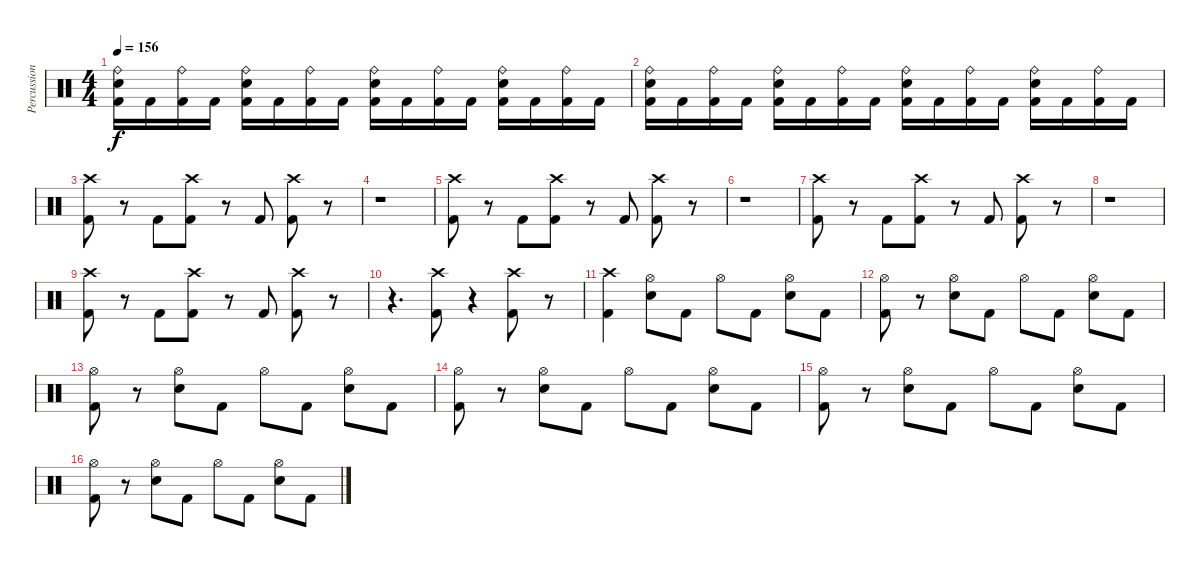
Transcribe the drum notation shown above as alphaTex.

\track ("Percussion" "Percussion") {instrument percussion}
\staff {score}
\articulation defaults
\ts (4 4)
\tempo 156
\clef neutral
\ks c
("Ride (bell)" "Snare (hit) 2" "Kick (hit) 2").16{dy f} "Kick (hit) 2".16 ("Ride (bell)" "Kick (hit) 2").16 "Kick (hit) 2".16 ("Ride (bell)" "Snare (hit) 2" "Kick (hit) 2").16 "Kick (hit) 2".16 ("Ride (bell)" "Kick (hit) 2").16 "Kick (hit) 2".16 ("Ride (bell)" "Snare (hit) 2" "Kick (hit) 2").16 "Kick (hit) 2".16 ("Ride (bell)" "Kick (hit) 2").16 "Kick (hit) 2".16 ("Ride (bell)" "Snare (hit) 2" "Kick (hit) 2").16 "Kick (hit) 2".16 ("Ride (bell)" "Kick (hit) 2").16 "Kick (hit) 2".16 |
("Ride (bell)" "Snare (hit) 2" "Kick (hit) 2").16 "Kick (hit) 2".16 ("Ride (bell)" "Kick (hit) 2").16 "Kick (hit) 2".16 ("Ride (bell)" "Snare (hit) 2" "Kick (hit) 2").16 "Kick (hit) 2".16 ("Ride (bell)" "Kick (hit) 2").16 "Kick (hit) 2".16 ("Ride (bell)" "Snare (hit) 2" "Kick (hit) 2").16 "Kick (hit) 2".16 ("Ride (bell)" "Kick (hit) 2").16 "Kick (hit) 2".16 ("Ride (bell)" "Snare (hit) 2" "Kick (hit) 2").16 "Kick (hit) 2".16 ("Ride (bell)" "Kick (hit) 2").16 "Kick (hit) 2".16 |
("Crash high (hit)" "Kick (hit) 2").8 r.8 "Kick (hit) 2".8 ("Crash high (hit)" "Kick (hit) 2").8 r.8 "Kick (hit) 2".8 ("Crash high (hit)" "Kick (hit) 2").8 r.8 |
r.1 |
("Crash high (hit)" "Kick (hit) 2").8 r.8 "Kick (hit) 2".8 ("Crash high (hit)" "Kick (hit) 2").8 r.8 "Kick (hit) 2".8 ("Crash high (hit)" "Kick (hit) 2").8 r.8 |
r.1 |
("Crash high (hit)" "Kick (hit) 2").8 r.8 "Kick (hit) 2".8 ("Crash high (hit)" "Kick (hit) 2").8 r.8 "Kick (hit) 2".8 ("Crash high (hit)" "Kick (hit) 2").8 r.8 |
r.1 |
("Crash high (hit)" "Kick (hit) 2").8 r.8 "Kick (hit) 2".8 ("Crash high (hit)" "Kick (hit) 2").8 r.8 "Kick (hit) 2".8 ("Crash high (hit)" "Kick (hit) 2").8 r.8 |
r.4{d} ("Kick (hit) 2" "Crash high (hit)").8 r.4 ("Kick (hit) 2" "Crash high (hit)").8 r.8 |
("Crash high (hit)" "Kick (hit) 2").4 ("Hi-Hat (open)" "Snare (hit) 2").8 "Kick (hit) 2".8 "Hi-Hat (open)".8 "Kick (hit) 2".8 ("Hi-Hat (open)" "Snare (hit) 2").8 "Kick (hit) 2".8 |
("Hi-Hat (open)" "Kick (hit) 2").8 r.8 ("Hi-Hat (open)" "Snare (hit) 2").8 "Kick (hit) 2".8 "Hi-Hat (open)".8 "Kick (hit) 2".8 ("Hi-Hat (open)" "Snare (hit) 2").8 "Kick (hit) 2".8 |
("Hi-Hat (open)" "Kick (hit) 2").8 r.8 ("Hi-Hat (open)" "Snare (hit) 2").8 "Kick (hit) 2".8 "Hi-Hat (open)".8 "Kick (hit) 2".8 ("Hi-Hat (open)" "Snare (hit) 2").8 "Kick (hit) 2".8 |
("Hi-Hat (open)" "Kick (hit) 2").8 r.8 ("Hi-Hat (open)" "Snare (hit) 2").8 "Kick (hit) 2".8 "Hi-Hat (open)".8 "Kick (hit) 2".8 ("Hi-Hat (open)" "Snare (hit) 2").8 "Kick (hit) 2".8 |
("Hi-Hat (open)" "Kick (hit) 2").8 r.8 ("Hi-Hat (open)" "Snare (hit) 2").8 "Kick (hit) 2".8 "Hi-Hat (open)".8 "Kick (hit) 2".8 ("Hi-Hat (open)" "Snare (hit) 2").8 "Kick (hit) 2".8 |
("Hi-Hat (open)" "Kick (hit) 2").8 r.8 ("Hi-Hat (open)" "Snare (hit) 2").8 "Kick (hit) 2".8 "Hi-Hat (open)".8 "Kick (hit) 2".8 ("Hi-Hat (open)" "Snare (hit) 2").8 "Kick (hit) 2".8
